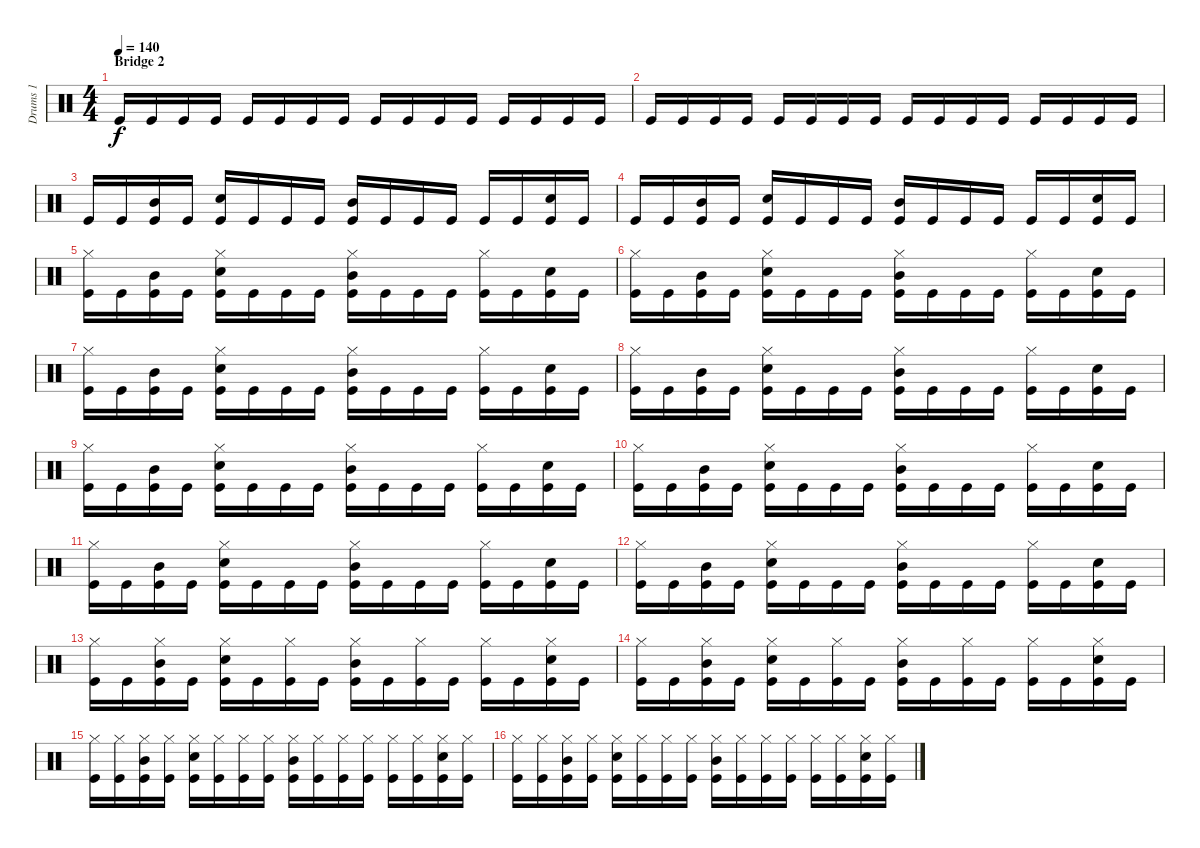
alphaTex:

\track ("Drums 1" "Drums 1") {instrument percussion}
\staff {score}
\articulation defaults
\ts (4 4)
\section ("" "Bridge 2")
\tempo 140
\clef neutral
\ks c "Kick (hit)".16{dy f} "Kick (hit)".16 "Kick (hit)".16 "Kick (hit)".16 "Kick (hit)".16 "Kick (hit)".16 "Kick (hit)".16 "Kick (hit)".16 "Kick (hit)".16 "Kick (hit)".16 "Kick (hit)".16 "Kick (hit)".16 "Kick (hit)".16 "Kick (hit)".16 "Kick (hit)".16 "Kick (hit)".16
|
"Kick (hit)".16 "Kick (hit)".16 "Kick (hit)".16 "Kick (hit)".16 "Kick (hit)".16 "Kick (hit)".16 "Kick (hit)".16 "Kick (hit)".16 "Kick (hit)".16 "Kick (hit)".16 "Kick (hit)".16 "Kick (hit)".16 "Kick (hit)".16 "Kick (hit)".16 "Kick (hit)".16 "Kick (hit)".16 |
"Kick (hit)".16 "Kick (hit)".16 ("Mid Tom (hit)" "Kick (hit)").16 "Kick (hit)".16 ("Snare (hit) 2" "Kick (hit)").16 "Kick (hit)".16 "Kick (hit)".16 "Kick (hit)".16 ("Mid Tom (hit)" "Kick (hit)").16 "Kick (hit)".16 "Kick (hit)".16 "Kick (hit)".16 "Kick (hit)".16 "Kick (hit)".16 ("Snare (hit) 2" "Kick (hit)").16 "Kick (hit)".16 |
"Kick (hit)".16 "Kick (hit)".16 ("Mid Tom (hit)" "Kick (hit)").16 "Kick (hit)".16 ("Snare (hit) 2" "Kick (hit)").16 "Kick (hit)".16 "Kick (hit)".16 "Kick (hit)".16 ("Mid Tom (hit)" "Kick (hit)").16 "Kick (hit)".16 "Kick (hit)".16 "Kick (hit)".16 "Kick (hit)".16 "Kick (hit)".16 ("Snare (hit) 2" "Kick (hit)").16 "Kick (hit)".16 |
("Hi-Hat (closed)" "Kick (hit)").16 "Kick (hit)".16 ("Mid Tom (hit)" "Kick (hit)").16 "Kick (hit)".16 ("Snare (hit) 2" "Hi-Hat (closed)" "Kick (hit)").16 "Kick (hit)".16 "Kick (hit)".16 "Kick (hit)".16 ("Mid Tom (hit)" "Hi-Hat (closed)" "Kick (hit)").16 "Kick (hit)".16 "Kick (hit)".16 "Kick (hit)".16 ("Hi-Hat (closed)" "Kick (hit)").16 "Kick (hit)".16 ("Snare (hit) 2" "Kick (hit)").16 "Kick (hit)".16 |
("Hi-Hat (closed)" "Kick (hit)").16 "Kick (hit)".16 ("Mid Tom (hit)" "Kick (hit)").16 "Kick (hit)".16 ("Snare (hit) 2" "Hi-Hat (closed)" "Kick (hit)").16 "Kick (hit)".16 "Kick (hit)".16 "Kick (hit)".16 ("Mid Tom (hit)" "Hi-Hat (closed)" "Kick (hit)").16 "Kick (hit)".16 "Kick (hit)".16 "Kick (hit)".16 ("Hi-Hat (closed)" "Kick (hit)").16 "Kick (hit)".16 ("Snare (hit) 2" "Kick (hit)").16 "Kick (hit)".16 |
("Hi-Hat (closed)" "Kick (hit)").16 "Kick (hit)".16 ("Mid Tom (hit)" "Kick (hit)").16 "Kick (hit)".16 ("Snare (hit) 2" "Hi-Hat (closed)" "Kick (hit)").16 "Kick (hit)".16 "Kick (hit)".16 "Kick (hit)".16 ("Mid Tom (hit)" "Hi-Hat (closed)" "Kick (hit)").16 "Kick (hit)".16 "Kick (hit)".16 "Kick (hit)".16 ("Hi-Hat (closed)" "Kick (hit)").16 "Kick (hit)".16 ("Snare (hit) 2" "Kick (hit)").16 "Kick (hit)".16 |
("Hi-Hat (closed)" "Kick (hit)").16 "Kick (hit)".16 ("Mid Tom (hit)" "Kick (hit)").16 "Kick (hit)".16 ("Snare (hit) 2" "Hi-Hat (closed)" "Kick (hit)").16 "Kick (hit)".16 "Kick (hit)".16 "Kick (hit)".16 ("Mid Tom (hit)" "Hi-Hat (closed)" "Kick (hit)").16 "Kick (hit)".16 "Kick (hit)".16 "Kick (hit)".16 ("Hi-Hat (closed)" "Kick (hit)").16 "Kick (hit)".16 ("Snare (hit) 2" "Kick (hit)").16 "Kick (hit)".16 |
("Hi-Hat (closed)" "Kick (hit)").16 "Kick (hit)".16 ("Mid Tom (hit)" "Kick (hit)").16 "Kick (hit)".16 ("Snare (hit) 2" "Hi-Hat (closed)" "Kick (hit)").16 "Kick (hit)".16 "Kick (hit)".16 "Kick (hit)".16 ("Mid Tom (hit)" "Hi-Hat (closed)" "Kick (hit)").16 "Kick (hit)".16 "Kick (hit)".16 "Kick (hit)".16 ("Hi-Hat (closed)" "Kick (hit)").16 "Kick (hit)".16 ("Snare (hit) 2" "Kick (hit)").16 "Kick (hit)".16 |
("Hi-Hat (closed)" "Kick (hit)").16 "Kick (hit)".16 ("Mid Tom (hit)" "Kick (hit)").16 "Kick (hit)".16 ("Snare (hit) 2" "Hi-Hat (closed)" "Kick (hit)").16 "Kick (hit)".16 "Kick (hit)".16 "Kick (hit)".16 ("Mid Tom (hit)" "Hi-Hat (closed)" "Kick (hit)").16 "Kick (hit)".16 "Kick (hit)".16 "Kick (hit)".16 ("Hi-Hat (closed)" "Kick (hit)").16 "Kick (hit)".16 ("Snare (hit) 2" "Kick (hit)").16 "Kick (hit)".16 |
("Hi-Hat (closed)" "Kick (hit)").16 "Kick (hit)".16 ("Mid Tom (hit)" "Kick (hit)").16 "Kick (hit)".16 ("Snare (hit) 2" "Hi-Hat (closed)" "Kick (hit)").16 "Kick (hit)".16 "Kick (hit)".16 "Kick (hit)".16 ("Mid Tom (hit)" "Hi-Hat (closed)" "Kick (hit)").16 "Kick (hit)".16 "Kick (hit)".16 "Kick (hit)".16 ("Hi-Hat (closed)" "Kick (hit)").16 "Kick (hit)".16 ("Snare (hit) 2" "Kick (hit)").16 "Kick (hit)".16 |
("Hi-Hat (closed)" "Kick (hit)").16 "Kick (hit)".16 ("Mid Tom (hit)" "Kick (hit)").16 "Kick (hit)".16 ("Snare (hit) 2" "Hi-Hat (closed)" "Kick (hit)").16 "Kick (hit)".16 "Kick (hit)".16 "Kick (hit)".16 ("Mid Tom (hit)" "Hi-Hat (closed)" "Kick (hit)").16 "Kick (hit)".16 "Kick (hit)".16 "Kick (hit)".16 ("Hi-Hat (closed)" "Kick (hit)").16 "Kick (hit)".16 ("Snare (hit) 2" "Kick (hit)").16 "Kick (hit)".16 |
("Hi-Hat (closed)" "Kick (hit)").16 "Kick (hit)".16 ("Mid Tom (hit)" "Hi-Hat (closed)" "Kick (hit)").16 "Kick (hit)".16 ("Snare (hit) 2" "Hi-Hat (closed)" "Kick (hit)").16 "Kick (hit)".16 ("Hi-Hat (closed)" "Kick (hit)").16 "Kick (hit)".16 ("Mid Tom (hit)" "Hi-Hat (closed)" "Kick (hit)").16 "Kick (hit)".16 ("Hi-Hat (closed)" "Kick (hit)").16 "Kick (hit)".16 ("Hi-Hat (closed)" "Kick (hit)").16 "Kick (hit)".16 ("Snare (hit) 2" "Hi-Hat (closed)" "Kick (hit)").16 "Kick (hit)".16 |
("Hi-Hat (closed)" "Kick (hit)").16 "Kick (hit)".16 ("Mid Tom (hit)" "Hi-Hat (closed)" "Kick (hit)").16 "Kick (hit)".16 ("Snare (hit) 2" "Hi-Hat (closed)" "Kick (hit)").16 "Kick (hit)".16 ("Hi-Hat (closed)" "Kick (hit)").16 "Kick (hit)".16 ("Mid Tom (hit)" "Hi-Hat (closed)" "Kick (hit)").16 "Kick (hit)".16 ("Hi-Hat (closed)" "Kick (hit)").16 "Kick (hit)".16 ("Hi-Hat (closed)" "Kick (hit)").16 "Kick (hit)".16 ("Snare (hit) 2" "Hi-Hat (closed)" "Kick (hit)").16 "Kick (hit)".16 |
("Hi-Hat (closed)" "Kick (hit)").16 ("Hi-Hat (closed)" "Kick (hit)").16 ("Mid Tom (hit)" "Hi-Hat (closed)" "Kick (hit)").16 ("Hi-Hat (closed)" "Kick (hit)").16 ("Snare (hit) 2" "Hi-Hat (closed)" "Kick (hit)").16 ("Hi-Hat (closed)" "Kick (hit)").16 ("Hi-Hat (closed)" "Kick (hit)").16 ("Hi-Hat (closed)" "Kick (hit)").16 ("Mid Tom (hit)" "Hi-Hat (closed)" "Kick (hit)").16 ("Hi-Hat (closed)" "Kick (hit)").16 ("Hi-Hat (closed)" "Kick (hit)").16 ("Hi-Hat (closed)" "Kick (hit)").16 ("Hi-Hat (closed)" "Kick (hit)").16 ("Hi-Hat (closed)" "Kick (hit)").16 ("Snare (hit) 2" "Hi-Hat (closed)" "Kick (hit)").16 ("Hi-Hat (closed)" "Kick (hit)").16 |
("Hi-Hat (closed)" "Kick (hit)").16 ("Hi-Hat (closed)" "Kick (hit)").16 ("Mid Tom (hit)" "Hi-Hat (closed)" "Kick (hit)").16 ("Hi-Hat (closed)" "Kick (hit)").16 ("Snare (hit) 2" "Hi-Hat (closed)" "Kick (hit)").16 ("Hi-Hat (closed)" "Kick (hit)").16 ("Hi-Hat (closed)" "Kick (hit)").16 ("Hi-Hat (closed)" "Kick (hit)").16 ("Mid Tom (hit)" "Hi-Hat (closed)" "Kick (hit)").16 ("Hi-Hat (closed)" "Kick (hit)").16 ("Hi-Hat (closed)" "Kick (hit)").16 ("Hi-Hat (closed)" "Kick (hit)").16 ("Hi-Hat (closed)" "Kick (hit)").16 ("Hi-Hat (closed)" "Kick (hit)").16 ("Snare (hit) 2" "Hi-Hat (closed)" "Kick (hit)").16 ("Hi-Hat (closed)" "Kick (hit)").16
